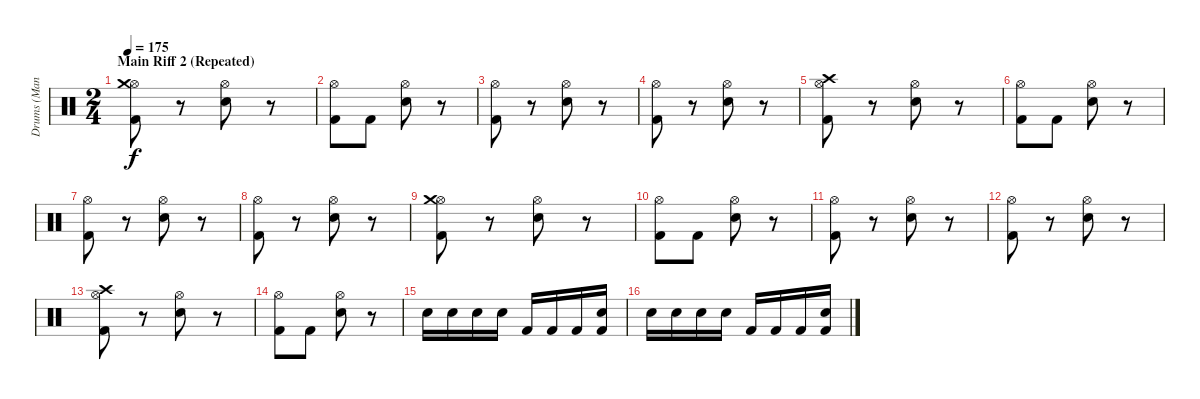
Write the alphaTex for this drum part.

\track ("Drums (Mancino)" "Drums (Man") {instrument percussion}
\staff {score}
\articulation defaults
\ts (2 4)
\section ("" "Main Riff 2 (Repeated)")
\tempo 175
\clef neutral
\ks c
("Hi-Hat (open)" "Crash medium (hit)" "Kick (hit) 2").8{dy f} r.8 ("Hi-Hat (open)" "Electric Snare (hit)").8 r.8 |
("Hi-Hat (open)" "Kick (hit) 2").8 "Kick (hit) 2".8 ("Hi-Hat (open)" "Electric Snare (hit)").8 r.8 |
("Hi-Hat (open)" "Kick (hit) 2").8 r.8 ("Hi-Hat (open)" "Electric Snare (hit)").8 r.8 |
("Hi-Hat (open)" "Kick (hit) 2").8 r.8 ("Hi-Hat (open)" "Electric Snare (hit)").8 r.8 |
("Hi-Hat (open)" "Crash high (hit)" "Kick (hit) 2").8 r.8 ("Hi-Hat (open)" "Electric Snare (hit)").8 r.8 |
("Hi-Hat (open)" "Kick (hit) 2").8 "Kick (hit) 2".8 ("Hi-Hat (open)" "Electric Snare (hit)").8 r.8 |
("Hi-Hat (open)" "Kick (hit) 2").8 r.8 ("Hi-Hat (open)" "Electric Snare (hit)").8 r.8 |
("Hi-Hat (open)" "Kick (hit) 2").8 r.8 ("Hi-Hat (open)" "Electric Snare (hit)").8 r.8 |
("Hi-Hat (open)" "Crash medium (hit)" "Kick (hit) 2").8 r.8 ("Hi-Hat (open)" "Electric Snare (hit)").8 r.8 |
("Hi-Hat (open)" "Kick (hit) 2").8 "Kick (hit) 2".8 ("Hi-Hat (open)" "Electric Snare (hit)").8 r.8 |
("Hi-Hat (open)" "Kick (hit) 2").8 r.8 ("Hi-Hat (open)" "Electric Snare (hit)").8 r.8 |
("Hi-Hat (open)" "Kick (hit) 2").8 r.8 ("Hi-Hat (open)" "Electric Snare (hit)").8 r.8 |
("Hi-Hat (open)" "Crash high (hit)" "Kick (hit) 2").8 r.8 ("Hi-Hat (open)" "Electric Snare (hit)").8 r.8 |
("Hi-Hat (open)" "Kick (hit) 2").8 "Kick (hit) 2".8 ("Hi-Hat (open)" "Electric Snare (hit)").8 r.8 |
"Electric Snare (hit)".16 "Electric Snare (hit)".16 "Electric Snare (hit)".16 "Electric Snare (hit)".16 "Kick (hit) 2".16 "Kick (hit) 2".16 "Kick (hit) 2".16 ("Electric Snare (hit)" "Kick (hit) 2").16 |
"Electric Snare (hit)".16 "Electric Snare (hit)".16 "Electric Snare (hit)".16 "Electric Snare (hit)".16 "Kick (hit) 2".16 "Kick (hit) 2".16 "Kick (hit) 2".16 ("Electric Snare (hit)" "Kick (hit) 2").16
